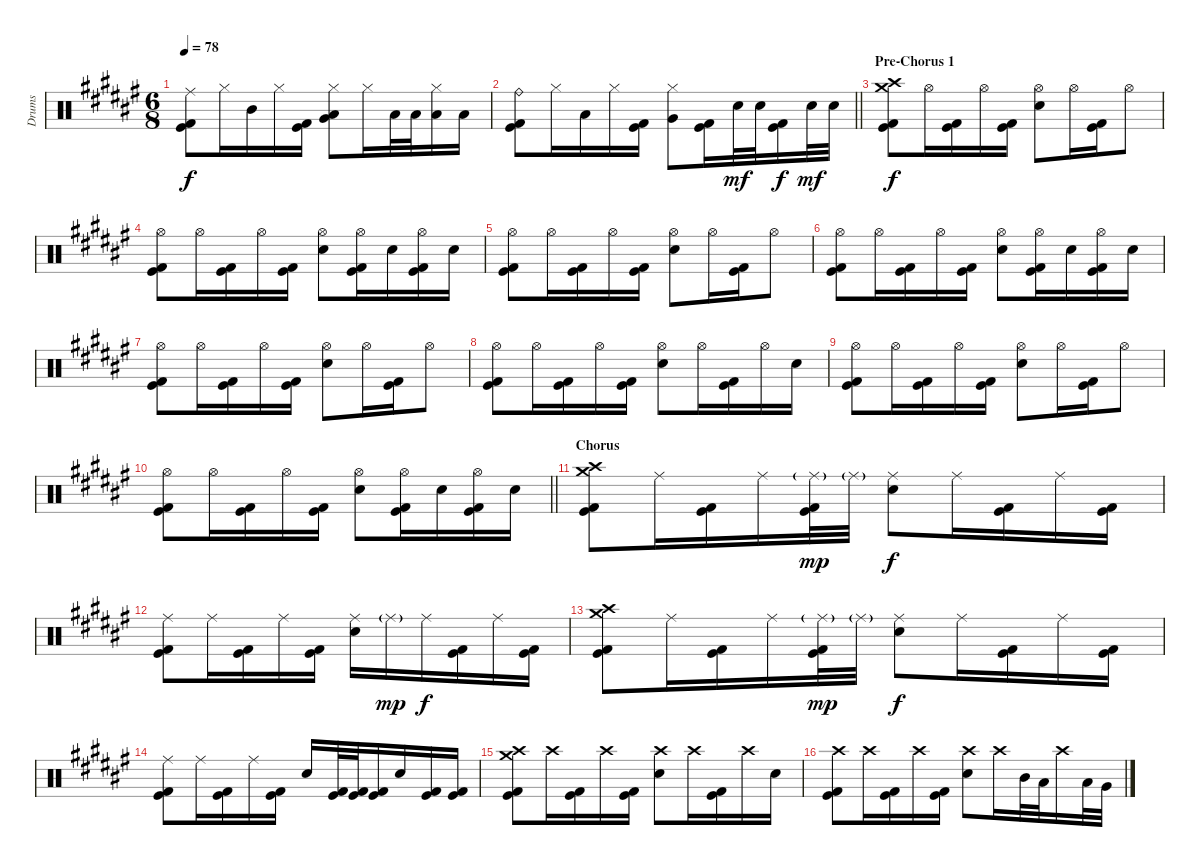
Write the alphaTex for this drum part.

\track ("Drums" "Drums") {instrument percussion}
\staff {score}
\articulation defaults
\ts (6 8)
\tempo 78
\clef neutral
\ks d#minor
("Ride (middle)" "Kick (hit)" "Kick (hit) 2").8{dy f} "Hi-Hat (closed)".16 "Mid Tom (hit)".16 "Hi-Hat (closed)".16 ("Kick (hit)" "Kick (hit) 2").16 ("Hi-Hat (closed)" "Low Tom (hit)" "Very Low Tom (hit)").8 "Hi-Hat (closed)".16 "Low Floor Tom (hit)".32 "Low Floor Tom (hit)".32 ("Hi-Hat (closed)" "Low Floor Tom (hit)").16 "Low Tom (hit)".16 |
\barLineRight lightlight
("Ride (bell)" "Kick (hit)" "Kick (hit) 2").8 "Hi-Hat (closed)".16 "Low Tom (hit)".16 "Hi-Hat (closed)".16 ("Kick (hit)" "Kick (hit) 2").16 ("Hi-Hat (closed)" "Very Low Tom (hit)").8 ("Kick (hit)" "Kick (hit) 2").16 "Snare (hit) 2".32{dy mf} "Snare (hit) 2".32 ("Kick (hit)" "Kick (hit) 2").16{dy f} "Snare (hit) 2".32{dy mf} "Snare (hit) 2".32 |
\section ("" "Pre-Chorus 1")
("Crash medium (hit)" "Crash high (hit)" "Kick (hit)" "Kick (hit) 2").8{dy f} "Hi-Hat (open)".16 ("Kick (hit)" "Kick (hit) 2").16 "Hi-Hat (open)".16 ("Kick (hit)" "Kick (hit) 2").16 ("Hi-Hat (open)" "Snare (hit) 2").8 "Hi-Hat (open)".16 ("Kick (hit)" "Kick (hit) 2").16 "Hi-Hat (open)".8 |
("Hi-Hat (open)" "Kick (hit)" "Kick (hit) 2").8 "Hi-Hat (open)".16 ("Kick (hit)" "Kick (hit) 2").16 "Hi-Hat (open)".16 ("Kick (hit)" "Kick (hit) 2").16 ("Hi-Hat (open)" "Snare (hit) 2").8 ("Hi-Hat (open)" "Kick (hit)" "Kick (hit) 2").16 "Snare (hit) 2".16 ("Hi-Hat (open)" "Kick (hit)" "Kick (hit) 2").16 "Snare (hit) 2".16 |
("Hi-Hat (open)" "Kick (hit)" "Kick (hit) 2").8 "Hi-Hat (open)".16 ("Kick (hit)" "Kick (hit) 2").16 "Hi-Hat (open)".16 ("Kick (hit)" "Kick (hit) 2").16 ("Hi-Hat (open)" "Snare (hit) 2").8 "Hi-Hat (open)".16 ("Kick (hit)" "Kick (hit) 2").16 "Hi-Hat (open)".8 |
("Hi-Hat (open)" "Kick (hit)" "Kick (hit) 2").8 "Hi-Hat (open)".16 ("Kick (hit)" "Kick (hit) 2").16 "Hi-Hat (open)".16 ("Kick (hit)" "Kick (hit) 2").16 ("Hi-Hat (open)" "Snare (hit) 2").8 ("Hi-Hat (open)" "Kick (hit)" "Kick (hit) 2").16 "Snare (hit) 2".16 ("Hi-Hat (open)" "Kick (hit)" "Kick (hit) 2").16 "Snare (hit) 2".16 |
("Hi-Hat (open)" "Kick (hit)" "Kick (hit) 2").8 "Hi-Hat (open)".16 ("Kick (hit)" "Kick (hit) 2").16 "Hi-Hat (open)".16 ("Kick (hit)" "Kick (hit) 2").16 ("Hi-Hat (open)" "Snare (hit) 2").8 "Hi-Hat (open)".16 ("Kick (hit)" "Kick (hit) 2").16 "Hi-Hat (open)".8 |
("Hi-Hat (open)" "Kick (hit)" "Kick (hit) 2").8 "Hi-Hat (open)".16 ("Kick (hit)" "Kick (hit) 2").16 "Hi-Hat (open)".16 ("Kick (hit)" "Kick (hit) 2").16 ("Hi-Hat (open)" "Snare (hit) 2").8 "Hi-Hat (open)".16 ("Kick (hit)" "Kick (hit) 2").16 "Hi-Hat (open)".16 "Snare (hit) 2".16 |
("Hi-Hat (open)" "Kick (hit)" "Kick (hit) 2").8 "Hi-Hat (open)".16 ("Kick (hit)" "Kick (hit) 2").16 "Hi-Hat (open)".16 ("Kick (hit)" "Kick (hit) 2").16 ("Hi-Hat (open)" "Snare (hit) 2").8 "Hi-Hat (open)".16 ("Kick (hit)" "Kick (hit) 2").16 "Hi-Hat (open)".8 |
\barLineRight lightlight
("Hi-Hat (open)" "Kick (hit)" "Kick (hit) 2").8 "Hi-Hat (open)".16 ("Kick (hit)" "Kick (hit) 2").16 "Hi-Hat (open)".16 ("Kick (hit)" "Kick (hit) 2").16 ("Hi-Hat (open)" "Snare (hit) 2").8 ("Hi-Hat (open)" "Kick (hit)" "Kick (hit) 2").16 "Snare (hit) 2".16 ("Hi-Hat (open)" "Kick (hit)" "Kick (hit) 2").16 "Snare (hit) 2".16 |
\section ("" "Chorus")
("Crash medium (hit)" "Crash high (hit)" "Kick (hit)" "Kick (hit) 2").8 "Ride (middle)".16 ("Kick (hit)" "Kick (hit) 2").16 "Ride (middle)".16 ("Ride (middle)"{g} "Kick (hit)" "Kick (hit) 2").32{dy mp} "Ride (middle)"{g}.32 ("Ride (middle)" "Snare (hit) 2").8{dy f} "Ride (middle)".16 ("Kick (hit)" "Kick (hit) 2").16 "Ride (middle)".16 ("Kick (hit)" "Kick (hit) 2").16 |
("Ride (middle)" "Kick (hit)" "Kick (hit) 2").8 "Ride (middle)".16 ("Kick (hit)" "Kick (hit) 2").16 "Ride (middle)".16 ("Kick (hit)" "Kick (hit) 2").16 ("Ride (middle)" "Snare (hit) 2").16 "Ride (middle)"{g}.16{dy mp} "Ride (middle)".16{dy f} ("Kick (hit)" "Kick (hit) 2").16 "Ride (middle)".16 ("Kick (hit)" "Kick (hit) 2").16 |
("Crash medium (hit)" "Crash high (hit)" "Kick (hit)" "Kick (hit) 2").8 "Ride (middle)".16 ("Kick (hit)" "Kick (hit) 2").16 "Ride (middle)".16 ("Ride (middle)"{g} "Kick (hit)" "Kick (hit) 2").32{dy mp} "Ride (middle)"{g}.32 ("Ride (middle)" "Snare (hit) 2").8{dy f} "Ride (middle)".16 ("Kick (hit)" "Kick (hit) 2").16 "Ride (middle)".16 ("Kick (hit)" "Kick (hit) 2").16 |
("Ride (middle)" "Kick (hit)" "Kick (hit) 2").8 "Ride (middle)".16 ("Kick (hit)" "Kick (hit) 2").16 "Ride (middle)".16 ("Kick (hit)" "Kick (hit) 2").16 "Snare (hit) 2".16 ("Kick (hit)" "Kick (hit) 2").32 ("Kick (hit)" "Kick (hit) 2").32 ("Kick (hit)" "Kick (hit) 2").16 "Snare (hit) 2".16 ("Kick (hit)" "Kick (hit) 2").16 ("Kick (hit)" "Kick (hit) 2").16 |
("Crash medium (hit)" "Crash high (hit)" "Kick (hit)" "Kick (hit) 2").8 "Crash high (hit)".16 ("Kick (hit)" "Kick (hit) 2").16 "Crash high (hit)".16 ("Kick (hit)" "Kick (hit) 2").16 ("Crash high (hit)" "Snare (hit) 2").8 "Crash high (hit)".16 ("Kick (hit)" "Kick (hit) 2").16 "Crash high (hit)".16 "Snare (hit) 2".16 |
("Crash high (hit)" "Kick (hit)" "Kick (hit) 2").8 "Crash high (hit)".16 ("Kick (hit)" "Kick (hit) 2").16 "Crash high (hit)".16 ("Kick (hit)" "Kick (hit) 2").16 ("Crash high (hit)" "Snare (hit) 2").8 "Crash high (hit)".16 "Mid Tom (hit)".32 "Low Tom (hit)".32 "Crash high (hit)".16 "Low Tom (hit)".32 "Very Low Tom (hit)".32
